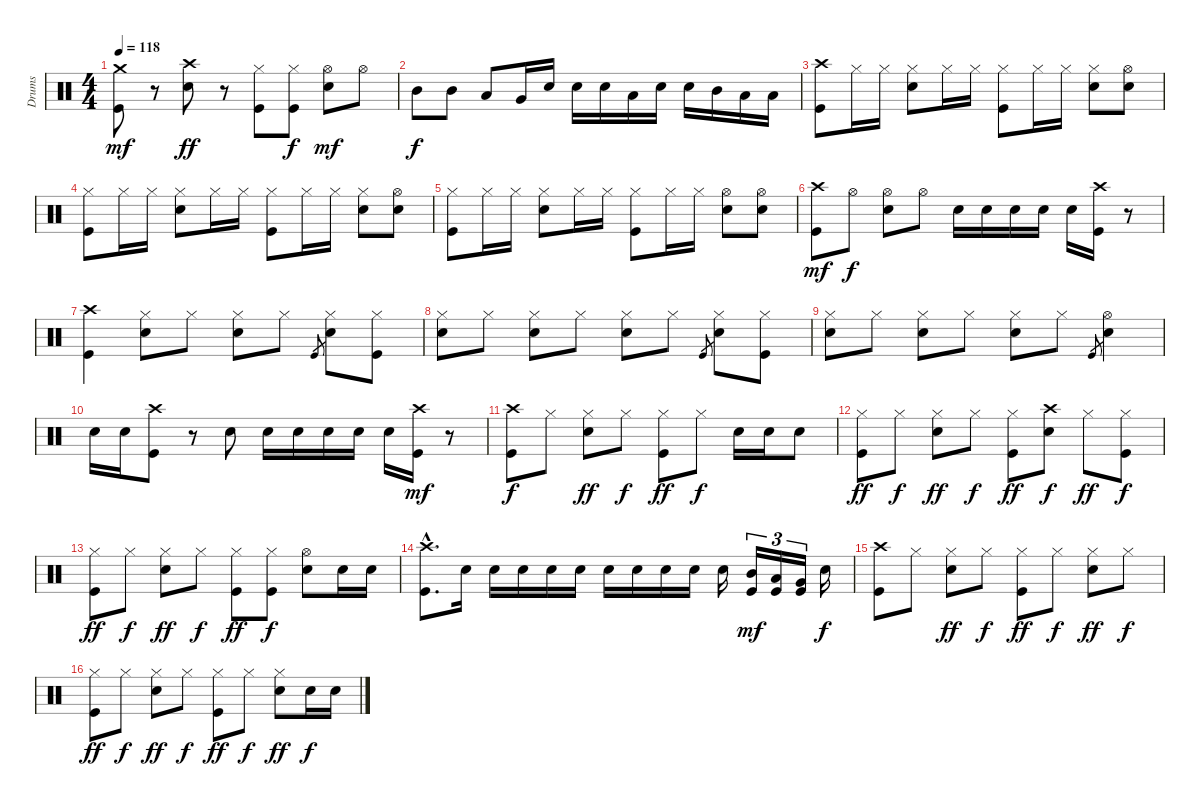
\track ("Drums" "Drums") {instrument percussion}
\staff {score}
\articulation defaults
\ts (4 4)
\tempo 118
\clef neutral
\ks c
("Crash medium (hit)" "Kick (hit)").8{dy mf} r.8 ("Crash high (hit)" "Snare (hit) 2").8{dy ff} r.8 ("Hi-Hat (closed)" "Kick (hit)").8 ("Hi-Hat (closed)" "Kick (hit)").8{dy f} ("Hi-Hat (open)" "Snare (hit) 2").8{dy mf} "Hi-Hat (open)".8 |
"Mid Tom (hit)".8{dy f} "Mid Tom (hit)".8 "Low Tom (hit)".8 "Very Low Tom (hit)".16 "Snare (hit) 2".16 "Snare (hit) 2".16 "Snare (hit) 2".16 "Low Tom (hit)".16 "Snare (hit) 2".16 "Snare (hit) 2".16 "Mid Tom (hit)".16 "Low Tom (hit)".16 "Low Tom (hit)".16 |
("Crash high (hit)" "Kick (hit)").8 "Hi-Hat (closed)".16 "Hi-Hat (closed)".16 ("Hi-Hat (closed)" "Snare (hit) 2").8 "Hi-Hat (closed)".16 "Hi-Hat (closed)".16 ("Hi-Hat (closed)" "Kick (hit)").8 "Hi-Hat (closed)".16 "Hi-Hat (closed)".16 ("Hi-Hat (closed)" "Snare (hit) 2").8 ("Hi-Hat (open)" "Snare (hit) 2").8 |
("Hi-Hat (closed)" "Kick (hit)").8 "Hi-Hat (closed)".16 "Hi-Hat (closed)".16 ("Hi-Hat (closed)" "Snare (hit) 2").8 "Hi-Hat (closed)".16 "Hi-Hat (closed)".16 ("Hi-Hat (closed)" "Kick (hit)").8 "Hi-Hat (closed)".16 "Hi-Hat (closed)".16 ("Hi-Hat (closed)" "Snare (hit) 2").8 ("Hi-Hat (open)" "Snare (hit) 2").8 |
("Hi-Hat (closed)" "Kick (hit)").8 "Hi-Hat (closed)".16 "Hi-Hat (closed)".16 ("Hi-Hat (closed)" "Snare (hit) 2").8 "Hi-Hat (closed)".16 "Hi-Hat (closed)".16 ("Hi-Hat (closed)" "Kick (hit)").8 "Hi-Hat (closed)".16 "Hi-Hat (closed)".16 ("Hi-Hat (open)" "Snare (hit) 2").8 ("Hi-Hat (open)" "Snare (hit) 2").8 |
("Crash high (hit)" "Kick (hit)").8{dy mf} "Hi-Hat (open)".8{dy f} ("Hi-Hat (open)" "Snare (hit) 2").8 "Hi-Hat (open)".8 "Snare (hit) 2".16 "Snare (hit) 2".16 "Snare (hit) 2".16 "Snare (hit) 2".16 "Snare (hit) 2".16 ("Crash high (hit)" "Kick (hit)").16 r.8 |
("Crash high (hit)" "Kick (hit)").4 ("Hi-Hat (closed)" "Snare (hit) 2").8 "Hi-Hat (closed)".8 ("Hi-Hat (closed)" "Snare (hit) 2").8 "Hi-Hat (closed)".8 "Kick (hit)".8{gr} ("Hi-Hat (closed)" "Snare (hit) 2").8 ("Hi-Hat (closed)" "Kick (hit)").8 |
("Hi-Hat (closed)" "Snare (hit) 2").8 "Hi-Hat (closed)".8 ("Hi-Hat (closed)" "Snare (hit) 2").8 "Hi-Hat (closed)".8 ("Hi-Hat (closed)" "Snare (hit) 2").8 "Hi-Hat (closed)".8 "Kick (hit)".8{gr} ("Hi-Hat (closed)" "Snare (hit) 2").8 ("Hi-Hat (closed)" "Kick (hit)").8 |
("Hi-Hat (closed)" "Snare (hit) 2").8 "Hi-Hat (closed)".8 ("Hi-Hat (closed)" "Snare (hit) 2").8 "Hi-Hat (closed)".8 ("Hi-Hat (closed)" "Snare (hit) 2").8 "Hi-Hat (closed)".8 "Kick (hit)".8{gr} ("Hi-Hat (open)" "Snare (hit) 2").4 |
"Snare (hit) 2".16 "Snare (hit) 2".16 ("Crash high (hit)" "Kick (hit)").8 r.8 "Snare (hit) 2".8 "Snare (hit) 2".16 "Snare (hit) 2".16 "Snare (hit) 2".16 "Snare (hit) 2".16 "Snare (hit) 2".16 ("Crash high (hit)" "Kick (hit)").16{dy mf} r.8 |
("Crash high (hit)" "Kick (hit)").8{dy f} "Hi-Hat (closed)".8 ("Hi-Hat (closed)" "Snare (hit) 2").8{dy ff} "Hi-Hat (closed)".8{dy f} ("Hi-Hat (closed)" "Kick (hit)").8{dy ff} "Hi-Hat (closed)".8{dy f} "Snare (hit) 2".16 "Snare (hit) 2".16 "Snare (hit) 2".8 |
("Hi-Hat (closed)" "Kick (hit)").8{dy ff} "Hi-Hat (closed)".8{dy f} ("Hi-Hat (closed)" "Snare (hit) 2").8{dy ff} "Hi-Hat (closed)".8{dy f} ("Hi-Hat (closed)" "Kick (hit)").8{dy ff} ("Crash high (hit)" "Snare (hit) 2").8{dy f} "Hi-Hat (closed)".8{dy ff} ("Hi-Hat (closed)" "Kick (hit)").8{dy f} |
("Hi-Hat (closed)" "Kick (hit)").8{dy ff} "Hi-Hat (closed)".8{dy f} ("Hi-Hat (closed)" "Snare (hit) 2").8{dy ff} "Hi-Hat (closed)".8{dy f} ("Hi-Hat (closed)" "Kick (hit)").8{dy ff} ("Hi-Hat (closed)" "Kick (hit)").8{dy f} ("Hi-Hat (open)" "Snare (hit) 2").8 "Snare (hit) 2".16 "Snare (hit) 2".16 |
("Crash high (hit)"{hac} "Kick (hit)"{hac}).8{d} "Snare (hit) 2".16 "Snare (hit) 2".16 "Snare (hit) 2".16 "Snare (hit) 2".16 "Snare (hit) 2".16 "Snare (hit) 2".16 "Snare (hit) 2".16 "Snare (hit) 2".16 "Snare (hit) 2".16 "Snare (hit) 2".16 ("Mid Tom (hit)" "Kick (hit)").16{tu (3 2) dy mf} ("Low Tom (hit)" "Kick (hit)").16{tu (3 2)} ("Very Low Tom (hit)" "Kick (hit)").16{tu (3 2)} "Snare (hit) 2".16{dy f} |
("Crash high (hit)" "Kick (hit)").8 "Hi-Hat (closed)".8 ("Hi-Hat (closed)" "Snare (hit) 2").8{dy ff} "Hi-Hat (closed)".8{dy f} ("Hi-Hat (closed)" "Kick (hit)").8{dy ff} "Hi-Hat (closed)".8{dy f} ("Hi-Hat (closed)" "Snare (hit) 2").8{dy ff} "Hi-Hat (closed)".8{dy f} |
("Hi-Hat (closed)" "Kick (hit)").8{dy ff} "Hi-Hat (closed)".8{dy f} ("Hi-Hat (closed)" "Snare (hit) 2").8{dy ff} "Hi-Hat (closed)".8{dy f} ("Hi-Hat (closed)" "Kick (hit)").8{dy ff} "Hi-Hat (closed)".8{dy f} ("Hi-Hat (closed)" "Snare (hit) 2").8{dy ff} "Snare (hit) 2".16{dy f} "Snare (hit) 2".16
